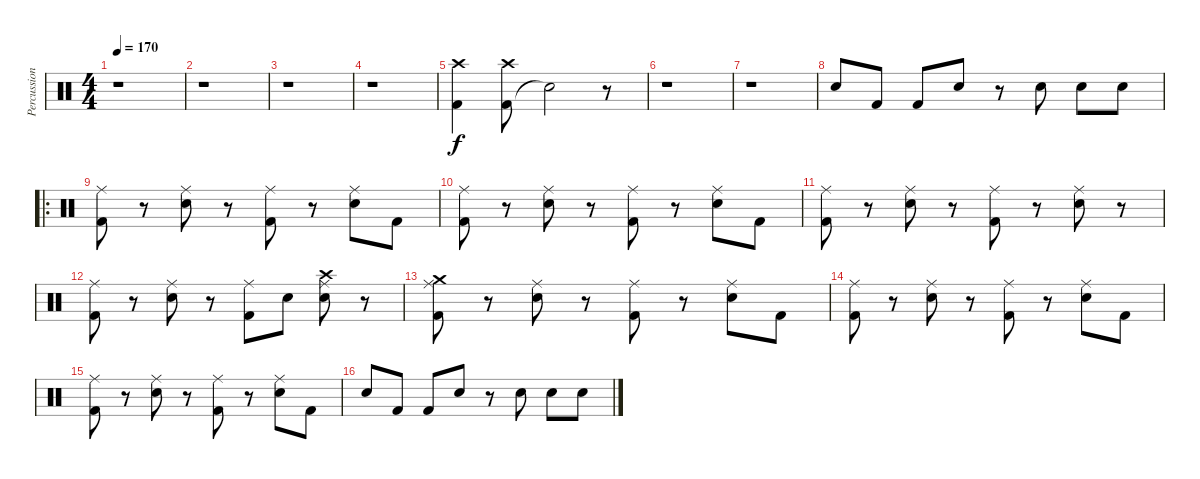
\track ("Percussion" "Percussion") {instrument percussion}
\staff {score}
\articulation defaults
\ts (4 4)
\tempo 170
\clef neutral
\ks c
r.1{dy f} |
r.1 |
r.1 |
r.1 |
("Kick (hit) 2" "Crash high (hit)").4 ("Kick (hit) 2" "Crash high (hit)").8 "Snare (hit)"{t}.2 r.8 |
r.1 |
r.1 |
"Electric Snare (hit)".8 "Kick (hit) 2".8 "Kick (hit) 2".8 "Electric Snare (hit)".8 r.8 "Electric Snare (hit)".8 "Electric Snare (hit)".8 "Electric Snare (hit)".8 |
\ro
("Ride (middle)" "Kick (hit) 2").8 r.8 ("Ride (middle)" "Electric Snare (hit)").8 r.8 ("Ride (middle)" "Kick (hit) 2").8 r.8 ("Ride (middle)" "Electric Snare (hit)").8 "Kick (hit) 2".8 |
("Ride (middle)" "Kick (hit) 2").8 r.8 ("Ride (middle)" "Electric Snare (hit)").8 r.8 ("Ride (middle)" "Kick (hit) 2").8 r.8 ("Ride (middle)" "Electric Snare (hit)").8 "Kick (hit) 2".8 |
("Ride (middle)" "Kick (hit) 2").8 r.8 ("Ride (middle)" "Electric Snare (hit)").8 r.8 ("Ride (middle)" "Kick (hit) 2").8 r.8 ("Ride (middle)" "Electric Snare (hit)").8 r.8 |
("Ride (middle)" "Kick (hit) 2").8 r.8 ("Ride (middle)" "Electric Snare (hit)").8 r.8 ("Ride (middle)" "Kick (hit) 2").8 "Electric Snare (hit)".8 ("Ride (middle)" "Crash high (hit)" "Electric Snare (hit)").8 r.8 |
("Ride (middle)" "Kick (hit) 2" "Crash medium (hit)").8 r.8 ("Ride (middle)" "Electric Snare (hit)").8 r.8 ("Ride (middle)" "Kick (hit) 2").8 r.8 ("Ride (middle)" "Electric Snare (hit)").8 "Kick (hit) 2".8 |
("Ride (middle)" "Kick (hit) 2").8 r.8 ("Ride (middle)" "Electric Snare (hit)").8 r.8 ("Ride (middle)" "Kick (hit) 2").8 r.8 ("Ride (middle)" "Electric Snare (hit)").8 "Kick (hit) 2".8 |
("Ride (middle)" "Kick (hit) 2").8 r.8 ("Ride (middle)" "Electric Snare (hit)").8 r.8 ("Ride (middle)" "Kick (hit) 2").8 r.8 ("Ride (middle)" "Electric Snare (hit)").8 "Kick (hit) 2".8 |
"Electric Snare (hit)".8 "Kick (hit) 2".8 "Kick (hit) 2".8 "Electric Snare (hit)".8 r.8 "Electric Snare (hit)".8 "Electric Snare (hit)".8 "Electric Snare (hit)".8
